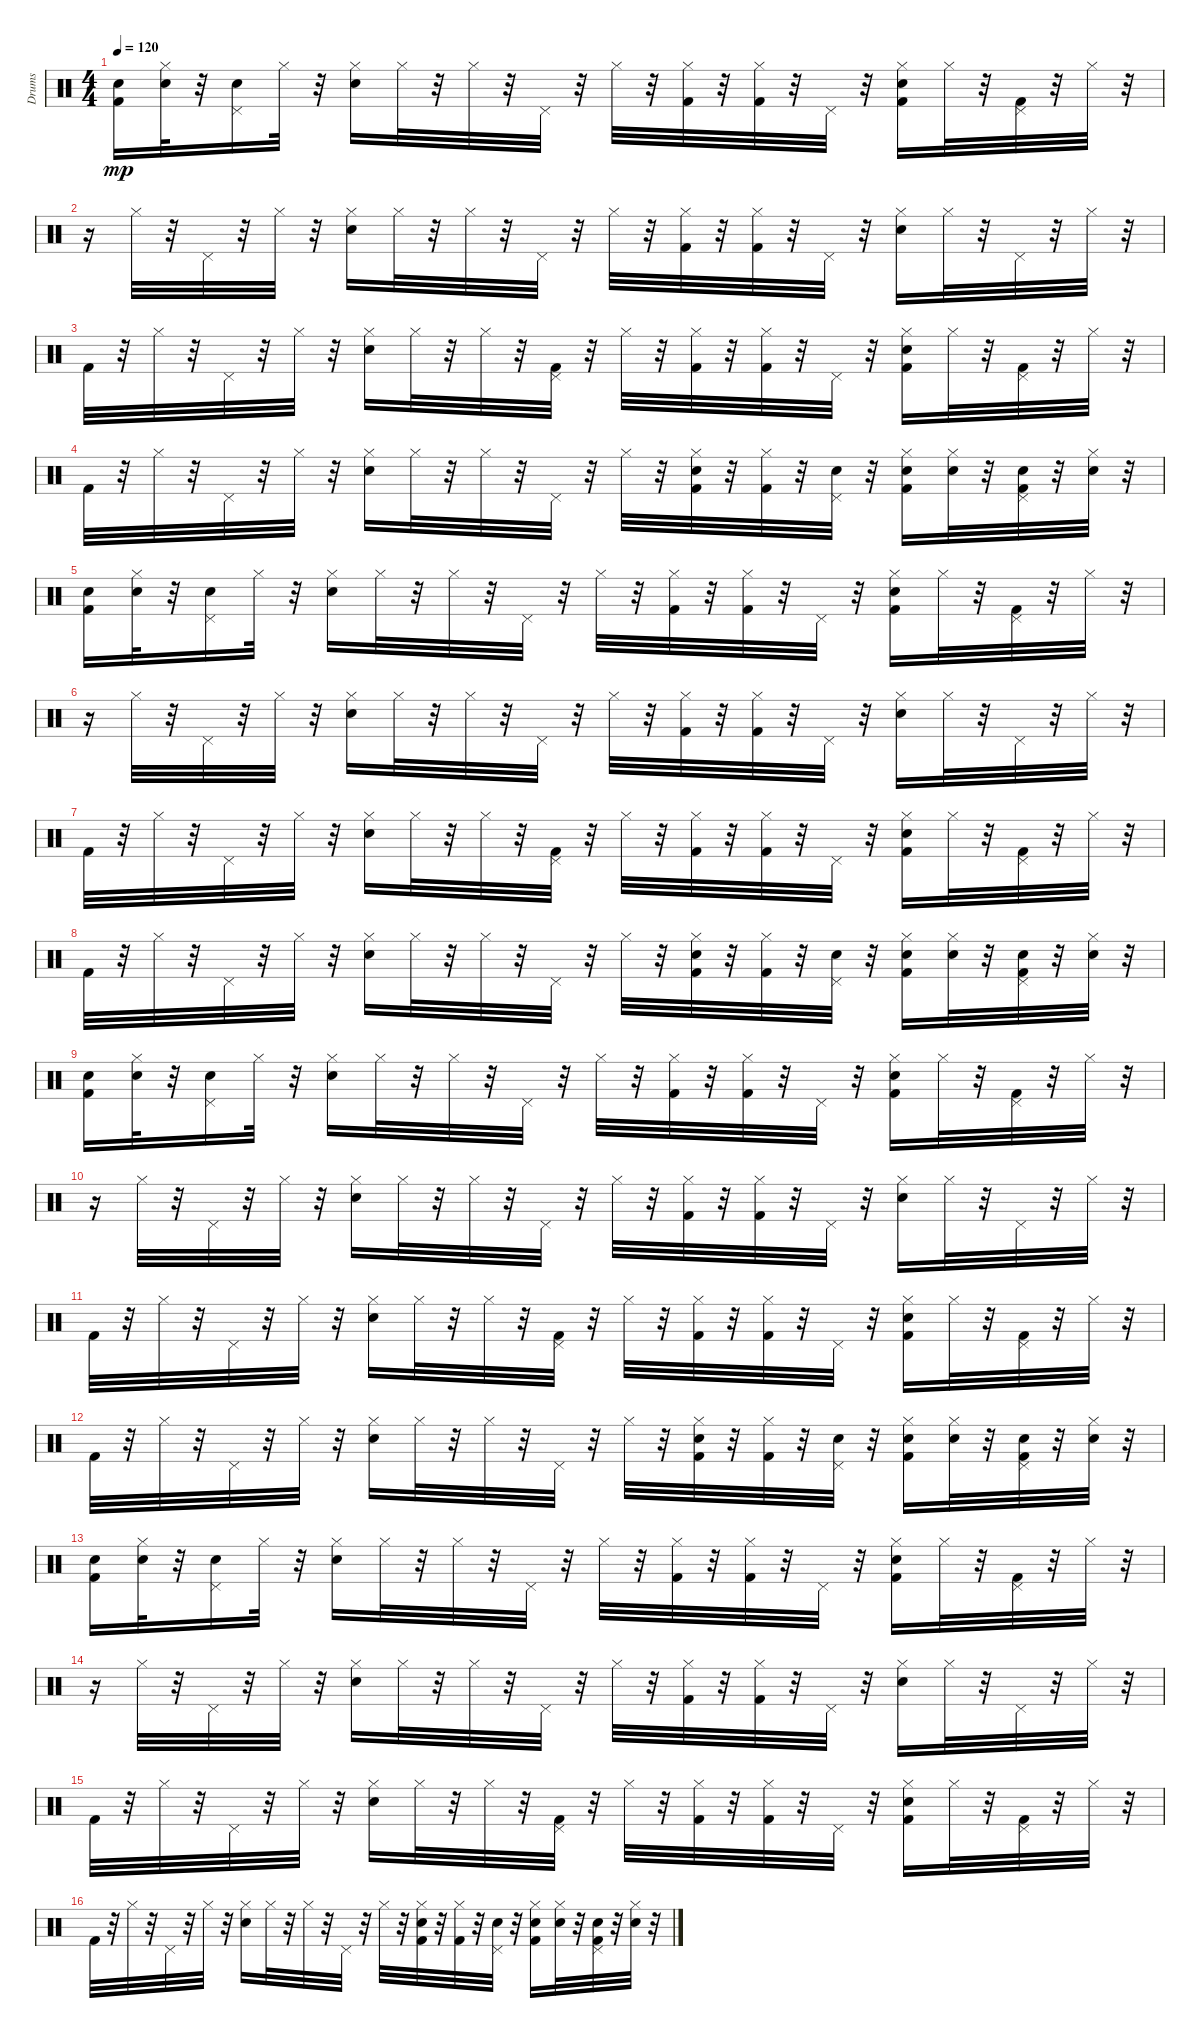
\track ("Drums" "Drums") {instrument percussion}
\staff {score}
\articulation defaults
\ts (4 4)
\tempo 120
\clef neutral
\ks c
("Kick (hit) 2" "Hand Clap (hit)").16{dy mp} ("Hi-Hat (closed)" "Hand Clap (hit)").32 r.32 ("Pedal Hi-Hat (hit)" "Hand Clap (hit)").16 "Hi-Hat (closed)".32 r.32 ("Hi-Hat (closed)" "Snare (hit) 2").16 "Hi-Hat (closed)".32 r.32 "Hi-Hat (closed)".32 r.32 "Pedal Hi-Hat (hit)".32 r.32 "Hi-Hat (closed)".32 r.32 ("Hi-Hat (closed)" "Kick (hit) 2").32 r.32 ("Hi-Hat (closed)" "Kick (hit) 2").32 r.32 "Pedal Hi-Hat (hit)".32 r.32 ("Hi-Hat (closed)" "Snare (hit) 2" "Kick (hit) 2").16 "Hi-Hat (closed)".32 r.32 ("Pedal Hi-Hat (hit)" "Kick (hit) 2").32 r.32 "Hi-Hat (closed)".32 r.32 |
r.16 "Hi-Hat (closed)".32 r.32 "Pedal Hi-Hat (hit)".32 r.32 "Hi-Hat (closed)".32 r.32 ("Hi-Hat (closed)" "Snare (hit) 2").16 "Hi-Hat (closed)".32 r.32 "Hi-Hat (closed)".32 r.32 "Pedal Hi-Hat (hit)".32 r.32 "Hi-Hat (closed)".32 r.32 ("Hi-Hat (closed)" "Kick (hit) 2").32 r.32 ("Hi-Hat (closed)" "Kick (hit) 2").32 r.32 "Pedal Hi-Hat (hit)".32 r.32 ("Hi-Hat (closed)" "Snare (hit) 2").16 "Hi-Hat (closed)".32 r.32 "Pedal Hi-Hat (hit)".32 r.32 "Hi-Hat (closed)".32 r.32 |
"Kick (hit) 2".32 r.32 "Hi-Hat (closed)".32 r.32 "Pedal Hi-Hat (hit)".32 r.32 "Hi-Hat (closed)".32 r.32 ("Hi-Hat (closed)" "Snare (hit) 2").16 "Hi-Hat (closed)".32 r.32 "Hi-Hat (closed)".32 r.32 ("Pedal Hi-Hat (hit)" "Kick (hit) 2").32 r.32 "Hi-Hat (closed)".32 r.32 ("Hi-Hat (closed)" "Kick (hit) 2").32 r.32 ("Hi-Hat (closed)" "Kick (hit) 2").32 r.32 "Pedal Hi-Hat (hit)".32 r.32 ("Hi-Hat (closed)" "Kick (hit) 2" "Snare (hit) 2").16 "Hi-Hat (closed)".32 r.32 ("Kick (hit) 2" "Pedal Hi-Hat (hit)").32 r.32 "Hi-Hat (closed)".32 r.32 |
"Kick (hit) 2".32 r.32 "Hi-Hat (closed)".32 r.32 "Pedal Hi-Hat (hit)".32 r.32 "Hi-Hat (closed)".32 r.32 ("Hi-Hat (closed)" "Snare (hit) 2").16 "Hi-Hat (closed)".32 r.32 "Hi-Hat (closed)".32 r.32 "Pedal Hi-Hat (hit)".32 r.32 "Hi-Hat (closed)".32 r.32 ("Hi-Hat (closed)" "Kick (hit) 2" "Hand Clap (hit)").32 r.32 ("Hi-Hat (closed)" "Kick (hit) 2").32 r.32 ("Pedal Hi-Hat (hit)" "Hand Clap (hit)").32 r.32 ("Hi-Hat (closed)" "Kick (hit) 2" "Snare (hit) 2").16 ("Hi-Hat (closed)" "Hand Clap (hit)").32 r.32 ("Pedal Hi-Hat (hit)" "Kick (hit) 2" "Hand Clap (hit)").32 r.32 ("Hi-Hat (closed)" "Hand Clap (hit)").32 r.32 |
("Kick (hit) 2" "Hand Clap (hit)").16 ("Hi-Hat (closed)" "Hand Clap (hit)").32 r.32 ("Pedal Hi-Hat (hit)" "Hand Clap (hit)").16 "Hi-Hat (closed)".32 r.32 ("Hi-Hat (closed)" "Snare (hit) 2").16 "Hi-Hat (closed)".32 r.32 "Hi-Hat (closed)".32 r.32 "Pedal Hi-Hat (hit)".32 r.32 "Hi-Hat (closed)".32 r.32 ("Hi-Hat (closed)" "Kick (hit) 2").32 r.32 ("Hi-Hat (closed)" "Kick (hit) 2").32 r.32 "Pedal Hi-Hat (hit)".32 r.32 ("Hi-Hat (closed)" "Snare (hit) 2" "Kick (hit) 2").16 "Hi-Hat (closed)".32 r.32 ("Pedal Hi-Hat (hit)" "Kick (hit) 2").32 r.32 "Hi-Hat (closed)".32 r.32 |
r.16 "Hi-Hat (closed)".32 r.32 "Pedal Hi-Hat (hit)".32 r.32 "Hi-Hat (closed)".32 r.32 ("Hi-Hat (closed)" "Snare (hit) 2").16 "Hi-Hat (closed)".32 r.32 "Hi-Hat (closed)".32 r.32 "Pedal Hi-Hat (hit)".32 r.32 "Hi-Hat (closed)".32 r.32 ("Hi-Hat (closed)" "Kick (hit) 2").32 r.32 ("Hi-Hat (closed)" "Kick (hit) 2").32 r.32 "Pedal Hi-Hat (hit)".32 r.32 ("Hi-Hat (closed)" "Snare (hit) 2").16 "Hi-Hat (closed)".32 r.32 "Pedal Hi-Hat (hit)".32 r.32 "Hi-Hat (closed)".32 r.32 |
"Kick (hit) 2".32 r.32 "Hi-Hat (closed)".32 r.32 "Pedal Hi-Hat (hit)".32 r.32 "Hi-Hat (closed)".32 r.32 ("Hi-Hat (closed)" "Snare (hit) 2").16 "Hi-Hat (closed)".32 r.32 "Hi-Hat (closed)".32 r.32 ("Pedal Hi-Hat (hit)" "Kick (hit) 2").32 r.32 "Hi-Hat (closed)".32 r.32 ("Hi-Hat (closed)" "Kick (hit) 2").32 r.32 ("Hi-Hat (closed)" "Kick (hit) 2").32 r.32 "Pedal Hi-Hat (hit)".32 r.32 ("Hi-Hat (closed)" "Kick (hit) 2" "Snare (hit) 2").16 "Hi-Hat (closed)".32 r.32 ("Kick (hit) 2" "Pedal Hi-Hat (hit)").32 r.32 "Hi-Hat (closed)".32 r.32 |
"Kick (hit) 2".32 r.32 "Hi-Hat (closed)".32 r.32 "Pedal Hi-Hat (hit)".32 r.32 "Hi-Hat (closed)".32 r.32 ("Hi-Hat (closed)" "Snare (hit) 2").16 "Hi-Hat (closed)".32 r.32 "Hi-Hat (closed)".32 r.32 "Pedal Hi-Hat (hit)".32 r.32 "Hi-Hat (closed)".32 r.32 ("Hi-Hat (closed)" "Kick (hit) 2" "Hand Clap (hit)").32 r.32 ("Hi-Hat (closed)" "Kick (hit) 2").32 r.32 ("Pedal Hi-Hat (hit)" "Hand Clap (hit)").32 r.32 ("Hi-Hat (closed)" "Kick (hit) 2" "Snare (hit) 2").16 ("Hi-Hat (closed)" "Hand Clap (hit)").32 r.32 ("Pedal Hi-Hat (hit)" "Kick (hit) 2" "Hand Clap (hit)").32 r.32 ("Hi-Hat (closed)" "Hand Clap (hit)").32 r.32 |
("Kick (hit) 2" "Hand Clap (hit)").16 ("Hi-Hat (closed)" "Hand Clap (hit)").32 r.32 ("Pedal Hi-Hat (hit)" "Hand Clap (hit)").16 "Hi-Hat (closed)".32 r.32 ("Hi-Hat (closed)" "Snare (hit) 2").16 "Hi-Hat (closed)".32 r.32 "Hi-Hat (closed)".32 r.32 "Pedal Hi-Hat (hit)".32 r.32 "Hi-Hat (closed)".32 r.32 ("Hi-Hat (closed)" "Kick (hit) 2").32 r.32 ("Hi-Hat (closed)" "Kick (hit) 2").32 r.32 "Pedal Hi-Hat (hit)".32 r.32 ("Hi-Hat (closed)" "Snare (hit) 2" "Kick (hit) 2").16 "Hi-Hat (closed)".32 r.32 ("Pedal Hi-Hat (hit)" "Kick (hit) 2").32 r.32 "Hi-Hat (closed)".32 r.32 |
r.16 "Hi-Hat (closed)".32 r.32 "Pedal Hi-Hat (hit)".32 r.32 "Hi-Hat (closed)".32 r.32 ("Hi-Hat (closed)" "Snare (hit) 2").16 "Hi-Hat (closed)".32 r.32 "Hi-Hat (closed)".32 r.32 "Pedal Hi-Hat (hit)".32 r.32 "Hi-Hat (closed)".32 r.32 ("Hi-Hat (closed)" "Kick (hit) 2").32 r.32 ("Hi-Hat (closed)" "Kick (hit) 2").32 r.32 "Pedal Hi-Hat (hit)".32 r.32 ("Hi-Hat (closed)" "Snare (hit) 2").16 "Hi-Hat (closed)".32 r.32 "Pedal Hi-Hat (hit)".32 r.32 "Hi-Hat (closed)".32 r.32 |
"Kick (hit) 2".32 r.32 "Hi-Hat (closed)".32 r.32 "Pedal Hi-Hat (hit)".32 r.32 "Hi-Hat (closed)".32 r.32 ("Hi-Hat (closed)" "Snare (hit) 2").16 "Hi-Hat (closed)".32 r.32 "Hi-Hat (closed)".32 r.32 ("Pedal Hi-Hat (hit)" "Kick (hit) 2").32 r.32 "Hi-Hat (closed)".32 r.32 ("Hi-Hat (closed)" "Kick (hit) 2").32 r.32 ("Hi-Hat (closed)" "Kick (hit) 2").32 r.32 "Pedal Hi-Hat (hit)".32 r.32 ("Hi-Hat (closed)" "Kick (hit) 2" "Snare (hit) 2").16 "Hi-Hat (closed)".32 r.32 ("Kick (hit) 2" "Pedal Hi-Hat (hit)").32 r.32 "Hi-Hat (closed)".32 r.32 |
"Kick (hit) 2".32 r.32 "Hi-Hat (closed)".32 r.32 "Pedal Hi-Hat (hit)".32 r.32 "Hi-Hat (closed)".32 r.32 ("Hi-Hat (closed)" "Snare (hit) 2").16 "Hi-Hat (closed)".32 r.32 "Hi-Hat (closed)".32 r.32 "Pedal Hi-Hat (hit)".32 r.32 "Hi-Hat (closed)".32 r.32 ("Hi-Hat (closed)" "Kick (hit) 2" "Hand Clap (hit)").32 r.32 ("Hi-Hat (closed)" "Kick (hit) 2").32 r.32 ("Pedal Hi-Hat (hit)" "Hand Clap (hit)").32 r.32 ("Hi-Hat (closed)" "Kick (hit) 2" "Snare (hit) 2").16 ("Hi-Hat (closed)" "Hand Clap (hit)").32 r.32 ("Pedal Hi-Hat (hit)" "Kick (hit) 2" "Hand Clap (hit)").32 r.32 ("Hi-Hat (closed)" "Hand Clap (hit)").32 r.32 |
("Kick (hit) 2" "Hand Clap (hit)").16 ("Hi-Hat (closed)" "Hand Clap (hit)").32 r.32 ("Pedal Hi-Hat (hit)" "Hand Clap (hit)").16 "Hi-Hat (closed)".32 r.32 ("Hi-Hat (closed)" "Snare (hit) 2").16 "Hi-Hat (closed)".32 r.32 "Hi-Hat (closed)".32 r.32 "Pedal Hi-Hat (hit)".32 r.32 "Hi-Hat (closed)".32 r.32 ("Hi-Hat (closed)" "Kick (hit) 2").32 r.32 ("Hi-Hat (closed)" "Kick (hit) 2").32 r.32 "Pedal Hi-Hat (hit)".32 r.32 ("Hi-Hat (closed)" "Snare (hit) 2" "Kick (hit) 2").16 "Hi-Hat (closed)".32 r.32 ("Pedal Hi-Hat (hit)" "Kick (hit) 2").32 r.32 "Hi-Hat (closed)".32 r.32 |
r.16 "Hi-Hat (closed)".32 r.32 "Pedal Hi-Hat (hit)".32 r.32 "Hi-Hat (closed)".32 r.32 ("Hi-Hat (closed)" "Snare (hit) 2").16 "Hi-Hat (closed)".32 r.32 "Hi-Hat (closed)".32 r.32 "Pedal Hi-Hat (hit)".32 r.32 "Hi-Hat (closed)".32 r.32 ("Hi-Hat (closed)" "Kick (hit) 2").32 r.32 ("Hi-Hat (closed)" "Kick (hit) 2").32 r.32 "Pedal Hi-Hat (hit)".32 r.32 ("Hi-Hat (closed)" "Snare (hit) 2").16 "Hi-Hat (closed)".32 r.32 "Pedal Hi-Hat (hit)".32 r.32 "Hi-Hat (closed)".32 r.32 |
"Kick (hit) 2".32 r.32 "Hi-Hat (closed)".32 r.32 "Pedal Hi-Hat (hit)".32 r.32 "Hi-Hat (closed)".32 r.32 ("Hi-Hat (closed)" "Snare (hit) 2").16 "Hi-Hat (closed)".32 r.32 "Hi-Hat (closed)".32 r.32 ("Pedal Hi-Hat (hit)" "Kick (hit) 2").32 r.32 "Hi-Hat (closed)".32 r.32 ("Hi-Hat (closed)" "Kick (hit) 2").32 r.32 ("Hi-Hat (closed)" "Kick (hit) 2").32 r.32 "Pedal Hi-Hat (hit)".32 r.32 ("Hi-Hat (closed)" "Kick (hit) 2" "Snare (hit) 2").16 "Hi-Hat (closed)".32 r.32 ("Kick (hit) 2" "Pedal Hi-Hat (hit)").32 r.32 "Hi-Hat (closed)".32 r.32 |
"Kick (hit) 2".32 r.32 "Hi-Hat (closed)".32 r.32 "Pedal Hi-Hat (hit)".32 r.32 "Hi-Hat (closed)".32 r.32 ("Hi-Hat (closed)" "Snare (hit) 2").16 "Hi-Hat (closed)".32 r.32 "Hi-Hat (closed)".32 r.32 "Pedal Hi-Hat (hit)".32 r.32 "Hi-Hat (closed)".32 r.32 ("Hi-Hat (closed)" "Kick (hit) 2" "Hand Clap (hit)").32 r.32 ("Hi-Hat (closed)" "Kick (hit) 2").32 r.32 ("Pedal Hi-Hat (hit)" "Hand Clap (hit)").32 r.32 ("Hi-Hat (closed)" "Kick (hit) 2" "Snare (hit) 2").16 ("Hi-Hat (closed)" "Hand Clap (hit)").32 r.32 ("Pedal Hi-Hat (hit)" "Kick (hit) 2" "Hand Clap (hit)").32 r.32 ("Hi-Hat (closed)" "Hand Clap (hit)").32 r.32
